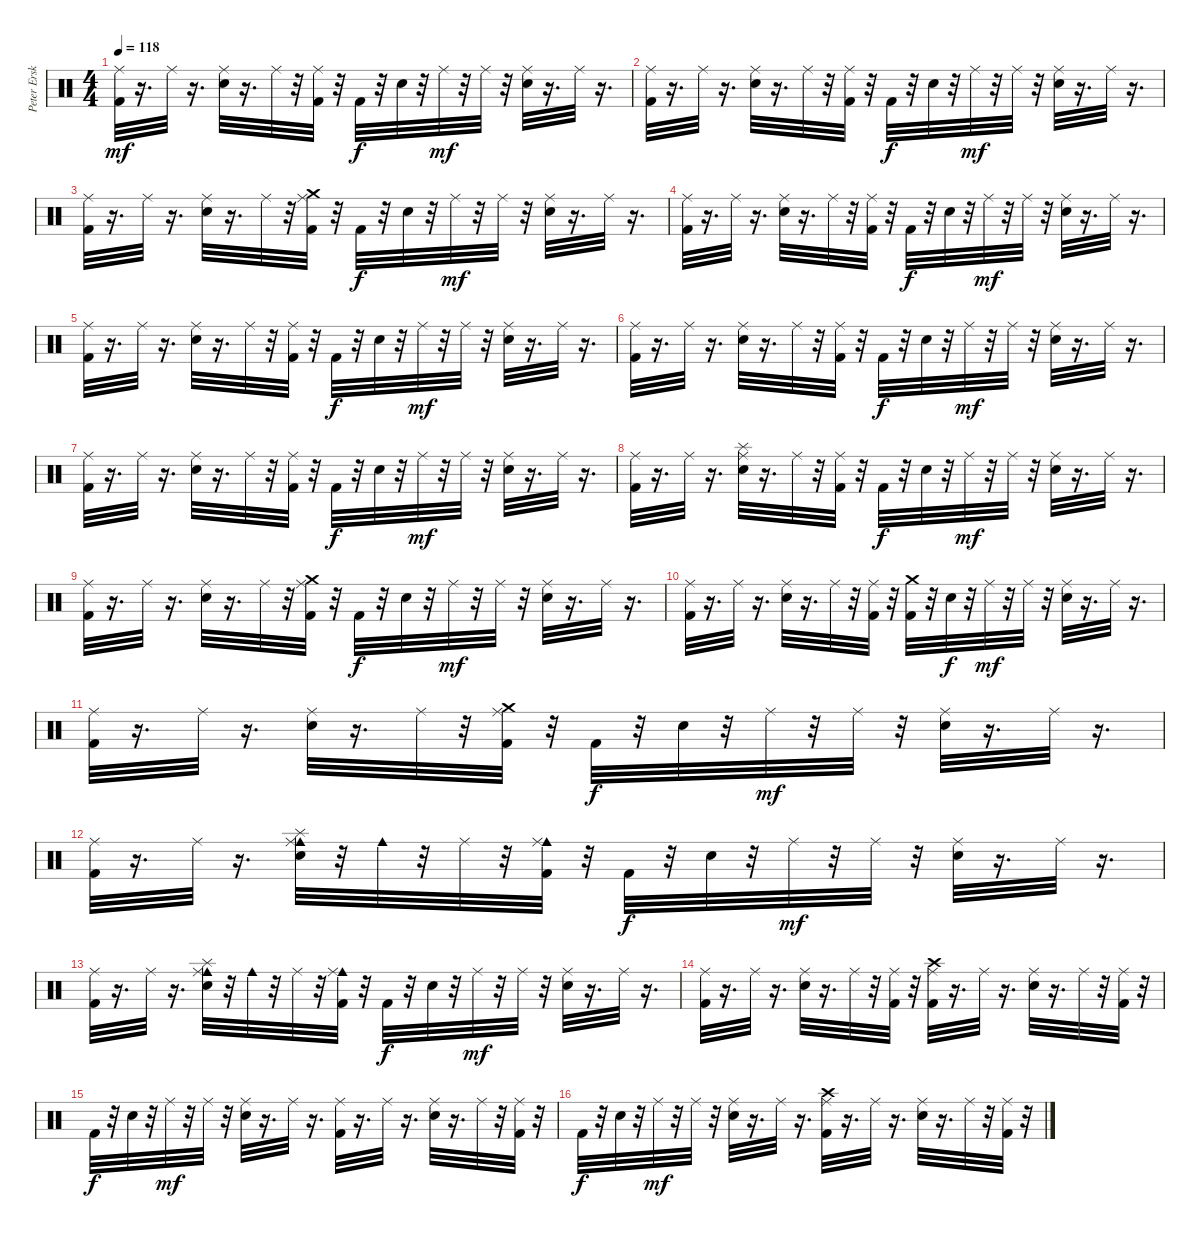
\track ("Peter Erskine" "Peter Ersk") {instrument percussion}
\staff {score}
\articulation defaults
\ts (4 4)
\tempo 118
\clef neutral
\ks c
("Kick (hit) 2" "Ride (middle)").32{dy mf} r.16{d} "Ride (middle)".32 r.16{d} ("Electric Snare (hit)" "Ride (middle)").32 r.16{d} "Ride (middle)".32 r.32 ("Kick (hit) 2" "Ride (middle)").32 r.32 "Kick (hit) 2".32{dy f} r.32 "Electric Snare (hit)".32 r.32 "Ride (middle)".32{dy mf} r.32 "Ride (middle)".32 r.32 ("Electric Snare (hit)" "Ride (middle)").32 r.16{d} "Ride (middle)".32 r.16{d} |
("Kick (hit) 2" "Ride (middle)").32 r.16{d} "Ride (middle)".32 r.16{d} ("Electric Snare (hit)" "Ride (middle)").32 r.16{d} "Ride (middle)".32 r.32 ("Kick (hit) 2" "Ride (middle)").32 r.32 "Kick (hit) 2".32{dy f} r.32 "Electric Snare (hit)".32 r.32 "Ride (middle)".32{dy mf} r.32 "Ride (middle)".32 r.32 ("Electric Snare (hit)" "Ride (middle)").32 r.16{d} "Ride (middle)".32 r.16{d} |
("Kick (hit) 2" "Ride (middle)").32 r.16{d} "Ride (middle)".32 r.16{d} ("Electric Snare (hit)" "Ride (middle)").32 r.16{d} "Ride (middle)".32 r.32 ("Kick (hit) 2" "Crash medium (hit)" "Ride (middle)").32 r.32 "Kick (hit) 2".32{dy f} r.32 "Electric Snare (hit)".32 r.32 "Ride (middle)".32{dy mf} r.32 "Ride (middle)".32 r.32 ("Electric Snare (hit)" "Ride (middle)").32 r.16{d} "Ride (middle)".32 r.16{d} |
("Kick (hit) 2" "Ride (middle)").32 r.16{d} "Ride (middle)".32 r.16{d} ("Electric Snare (hit)" "Ride (middle)").32 r.16{d} "Ride (middle)".32 r.32 ("Kick (hit) 2" "Ride (middle)").32 r.32 "Kick (hit) 2".32{dy f} r.32 "Electric Snare (hit)".32 r.32 "Ride (middle)".32{dy mf} r.32 "Ride (middle)".32 r.32 ("Electric Snare (hit)" "Ride (middle)").32 r.16{d} "Ride (middle)".32 r.16{d} |
("Kick (hit) 2" "Ride (middle)").32 r.16{d} "Ride (middle)".32 r.16{d} ("Electric Snare (hit)" "Ride (middle)").32 r.16{d} "Ride (middle)".32 r.32 ("Kick (hit) 2" "Ride (middle)").32 r.32 "Kick (hit) 2".32{dy f} r.32 "Electric Snare (hit)".32 r.32 "Ride (middle)".32{dy mf} r.32 "Ride (middle)".32 r.32 ("Electric Snare (hit)" "Ride (middle)").32 r.16{d} "Ride (middle)".32 r.16{d} |
("Kick (hit) 2" "Ride (middle)").32 r.16{d} "Ride (middle)".32 r.16{d} ("Electric Snare (hit)" "Ride (middle)").32 r.16{d} "Ride (middle)".32 r.32 ("Kick (hit) 2" "Ride (middle)").32 r.32 "Kick (hit) 2".32{dy f} r.32 "Electric Snare (hit)".32 r.32 "Ride (middle)".32{dy mf} r.32 "Ride (middle)".32 r.32 ("Electric Snare (hit)" "Ride (middle)").32 r.16{d} "Ride (middle)".32 r.16{d} |
("Kick (hit) 2" "Ride (middle)").32 r.16{d} "Ride (middle)".32 r.16{d} ("Electric Snare (hit)" "Ride (middle)").32 r.16{d} "Ride (middle)".32 r.32 ("Kick (hit) 2" "Ride (middle)").32 r.32 "Kick (hit) 2".32{dy f} r.32 "Electric Snare (hit)".32 r.32 "Ride (middle)".32{dy mf} r.32 "Ride (middle)".32 r.32 ("Electric Snare (hit)" "Ride (middle)").32 r.16{d} "Ride (middle)".32 r.16{d} |
("Kick (hit) 2" "Ride (middle)").32 r.16{d} "Ride (middle)".32 r.16{d} ("Electric Snare (hit)" "Splash (hit)" "Ride (middle)").32 r.16{d} "Ride (middle)".32 r.32 ("Kick (hit) 2" "Ride (middle)").32 r.32 "Kick (hit) 2".32{dy f} r.32 "Electric Snare (hit)".32 r.32 "Ride (middle)".32{dy mf} r.32 "Ride (middle)".32 r.32 ("Electric Snare (hit)" "Ride (middle)").32 r.16{d} "Ride (middle)".32 r.16{d} |
("Kick (hit) 2" "Ride (middle)").32 r.16{d} "Ride (middle)".32 r.16{d} ("Electric Snare (hit)" "Ride (middle)").32 r.16{d} "Ride (middle)".32 r.32 ("Kick (hit) 2" "Crash medium (hit)" "Ride (middle)").32 r.32 "Kick (hit) 2".32{dy f} r.32 "Electric Snare (hit)".32 r.32 "Ride (middle)".32{dy mf} r.32 "Ride (middle)".32 r.32 ("Electric Snare (hit)" "Ride (middle)").32 r.16{d} "Ride (middle)".32 r.16{d} |
("Kick (hit) 2" "Ride (middle)").32 r.16{d} "Ride (middle)".32 r.16{d} ("Electric Snare (hit)" "Ride (middle)").32 r.16{d} "Ride (middle)".32 r.32 ("Kick (hit) 2" "Ride (middle)").32 r.32 ("Kick (hit) 2" "Crash medium (hit)").32 r.32 "Electric Snare (hit)".32{dy f} r.32 "Ride (middle)".32{dy mf} r.32 "Ride (middle)".32 r.32 ("Electric Snare (hit)" "Ride (middle)").32 r.16{d} "Ride (middle)".32 r.16{d} |
("Kick (hit) 2" "Ride (middle)").32 r.16{d} "Ride (middle)".32 r.16{d} ("Electric Snare (hit)" "Ride (middle)").32 r.16{d} "Ride (middle)".32 r.32 ("Kick (hit) 2" "Crash medium (hit)" "Ride (middle)").32 r.32 "Kick (hit) 2".32{dy f} r.32 "Electric Snare (hit)".32 r.32 "Ride (middle)".32{dy mf} r.32 "Ride (middle)".32 r.32 ("Electric Snare (hit)" "Ride (middle)").32 r.16{d} "Ride (middle)".32 r.16{d} |
("Kick (hit) 2" "Ride (middle)").32 r.16{d} "Ride (middle)".32 r.16{d} ("Electric Snare (hit)" "Cowbell medium (hit)" "Splash (hit)" "Ride (middle)").32 r.32 "Cowbell medium (hit)".32 r.32 "Ride (middle)".32 r.32 ("Kick (hit) 2" "Cowbell medium (hit)" "Ride (middle)").32 r.32 "Kick (hit) 2".32{dy f} r.32 "Electric Snare (hit)".32 r.32 "Ride (middle)".32{dy mf} r.32 "Ride (middle)".32 r.32 ("Electric Snare (hit)" "Ride (middle)").32 r.16{d} "Ride (middle)".32 r.16{d} |
("Kick (hit) 2" "Ride (middle)").32 r.16{d} "Ride (middle)".32 r.16{d} ("Electric Snare (hit)" "Cowbell medium (hit)" "Splash (hit)" "Ride (middle)").32 r.32 "Cowbell medium (hit)".32 r.32 "Ride (middle)".32 r.32 ("Kick (hit) 2" "Cowbell medium (hit)" "Ride (middle)").32 r.32 "Kick (hit) 2".32{dy f} r.32 "Electric Snare (hit)".32 r.32 "Ride (middle)".32{dy mf} r.32 "Ride (middle)".32 r.32 ("Electric Snare (hit)" "Ride (middle)").32 r.16{d} "Ride (middle)".32 r.16{d} |
("Kick (hit) 2" "Ride (middle)").32 r.16{d} "Ride (middle)".32 r.16{d} ("Electric Snare (hit)" "Ride (middle)").32 r.16{d} "Ride (middle)".32 r.32 ("Kick (hit) 2" "Ride (middle)").32 r.32 ("Crash high (hit)" "Kick (hit) 2" "Ride (middle)").32 r.16{d} "Ride (middle)".32 r.16{d} ("Electric Snare (hit)" "Ride (middle)").32 r.16{d} "Ride (middle)".32 r.32 ("Kick (hit) 2" "Ride (middle)").32 r.32 |
"Kick (hit) 2".32{dy f} r.32 "Electric Snare (hit)".32 r.32 "Ride (middle)".32{dy mf} r.32 "Ride (middle)".32 r.32 ("Electric Snare (hit)" "Ride (middle)").32 r.16{d} "Ride (middle)".32 r.16{d} ("Kick (hit) 2" "Ride (middle)").32 r.16{d} "Ride (middle)".32 r.16{d} ("Electric Snare (hit)" "Ride (middle)").32 r.16{d} "Ride (middle)".32 r.32 ("Kick (hit) 2" "Ride (middle)").32 r.32 |
"Kick (hit) 2".32{dy f} r.32 "Electric Snare (hit)".32 r.32 "Ride (middle)".32{dy mf} r.32 "Ride (middle)".32 r.32 ("Electric Snare (hit)" "Ride (middle)").32 r.16{d} "Ride (middle)".32 r.16{d} ("Kick (hit) 2" "Crash high (hit)" "Ride (middle)").32 r.16{d} "Ride (middle)".32 r.16{d} ("Electric Snare (hit)" "Ride (middle)").32 r.16{d} "Ride (middle)".32 r.32 ("Kick (hit) 2" "Ride (middle)").32 r.32
